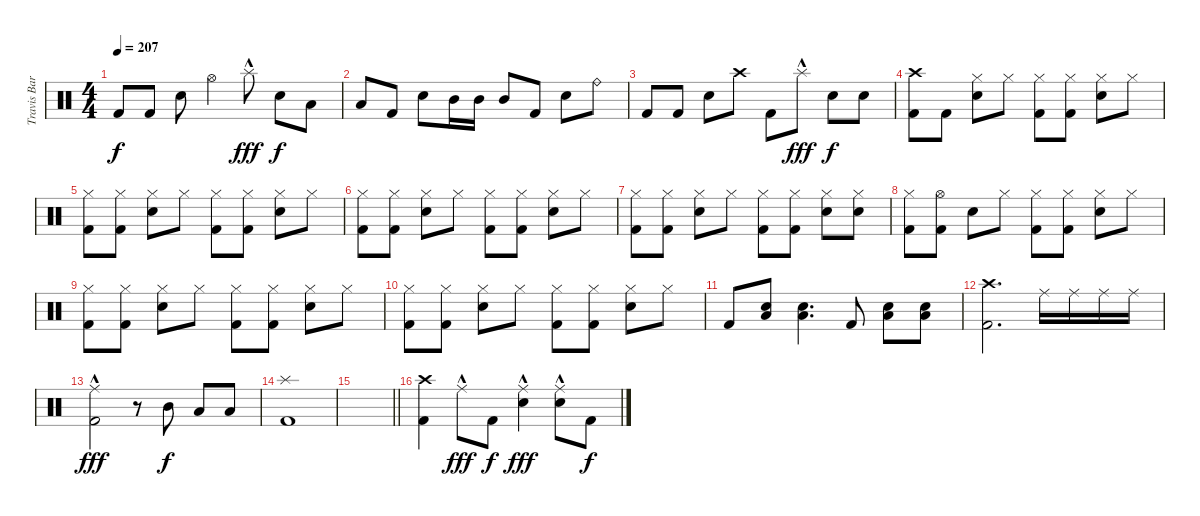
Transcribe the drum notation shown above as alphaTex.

\track ("Travis Barker" "Travis Bar") {instrument percussion}
\staff {score}
\articulation defaults
\ts (4 4)
\tempo 207
\clef neutral
\ks c "Kick (hit) 2".8{dy f} "Kick (hit) 2".8 "Electric Snare (hit)".8 "Hi-Hat (open)".4 "Splash (hit)"{hac}.8{dy fff} "Electric Snare (hit)".8{dy f} "Low Tom (hit)".8
|
"Low Tom (hit)".8 "Kick (hit) 2".8 "Electric Snare (hit)".8 "Mid Tom (hit)".16 "Mid Tom (hit)".16 "Mid Tom (hit)".8 "Kick (hit) 2".8 "Electric Snare (hit)".8 "Ride (bell)".8 |
"Kick (hit) 2".8 "Kick (hit) 2".8 "Electric Snare (hit)".8 "Crash high (hit)".8 "Kick (hit) 2".8 "Splash (hit)"{hac}.8{dy fff} "Electric Snare (hit)".8{dy f} "Electric Snare (hit)".8 |
("Crash high (hit)" "Kick (hit) 2").8 "Kick (hit) 2".8 ("Hi-Hat (closed)" "Electric Snare (hit)").8 "Hi-Hat (closed)".8 ("Hi-Hat (closed)" "Kick (hit) 2").8 ("Hi-Hat (closed)" "Kick (hit) 2").8 ("Hi-Hat (closed)" "Electric Snare (hit)").8 "Hi-Hat (closed)".8 |
("Hi-Hat (closed)" "Kick (hit) 2").8 ("Hi-Hat (closed)" "Kick (hit) 2").8 ("Hi-Hat (closed)" "Electric Snare (hit)").8 "Hi-Hat (closed)".8 ("Hi-Hat (closed)" "Kick (hit) 2").8 ("Hi-Hat (closed)" "Kick (hit) 2").8 ("Hi-Hat (closed)" "Electric Snare (hit)").8 "Hi-Hat (closed)".8 |
("Hi-Hat (closed)" "Kick (hit) 2").8 ("Hi-Hat (closed)" "Kick (hit) 2").8 ("Hi-Hat (closed)" "Electric Snare (hit)").8 "Hi-Hat (closed)".8 ("Hi-Hat (closed)" "Kick (hit) 2").8 ("Hi-Hat (closed)" "Kick (hit) 2").8 ("Hi-Hat (closed)" "Electric Snare (hit)").8 "Hi-Hat (closed)".8 |
("Hi-Hat (closed)" "Kick (hit) 2").8 ("Hi-Hat (closed)" "Kick (hit) 2").8 ("Hi-Hat (closed)" "Electric Snare (hit)").8 "Hi-Hat (closed)".8 ("Hi-Hat (closed)" "Kick (hit) 2").8 ("Hi-Hat (closed)" "Kick (hit) 2").8 ("Hi-Hat (closed)" "Electric Snare (hit)").8 ("Hi-Hat (closed)" "Electric Snare (hit)").8 |
("Hi-Hat (closed)" "Kick (hit) 2").8 ("Hi-Hat (open)" "Kick (hit) 2").8 "Electric Snare (hit)".8 "Hi-Hat (closed)".8 ("Hi-Hat (closed)" "Kick (hit) 2").8 ("Hi-Hat (closed)" "Kick (hit) 2").8 ("Hi-Hat (closed)" "Electric Snare (hit)").8 "Hi-Hat (closed)".8 |
("Hi-Hat (closed)" "Kick (hit) 2").8 ("Hi-Hat (closed)" "Kick (hit) 2").8 ("Hi-Hat (closed)" "Electric Snare (hit)").8 "Hi-Hat (closed)".8 ("Hi-Hat (closed)" "Kick (hit) 2").8 ("Hi-Hat (closed)" "Kick (hit) 2").8 ("Hi-Hat (closed)" "Electric Snare (hit)").8 "Hi-Hat (closed)".8 |
("Hi-Hat (closed)" "Kick (hit) 2").8 ("Hi-Hat (closed)" "Kick (hit) 2").8 ("Hi-Hat (closed)" "Electric Snare (hit)").8 "Hi-Hat (closed)".8 ("Hi-Hat (closed)" "Kick (hit) 2").8 ("Hi-Hat (closed)" "Kick (hit) 2").8 ("Hi-Hat (closed)" "Electric Snare (hit)").8 "Hi-Hat (closed)".8 |
"Kick (hit) 2".8 ("Electric Snare (hit)" "Low Tom (hit)").8 ("Electric Snare (hit)" "Low Tom (hit)").4{d} "Kick (hit) 2".8 ("Electric Snare (hit)" "Low Tom (hit)").8 ("Electric Snare (hit)" "Low Tom (hit)").8 |
("Crash high (hit)" "Kick (hit) 2").2{d volume 12} "Ride (middle)".16 "Ride (middle)".16 "Ride (middle)".16 "Ride (middle)".16 |
("Ride (middle)"{hac} "Kick (hit) 2").2{dy fff} r.8 "Mid Tom (hit)".8{dy f} "Low Tom (hit)".8 "Low Tom (hit)".8 |
("Splash (hit)" "Kick (hit) 2").1 |
\barLineRight lightlight
|
("Crash high (hit)" "Kick (hit) 2").4{volume 14} "Ride (middle)"{hac}.8{dy fff} "Kick (hit) 2".8{dy f} ("Ride (middle)"{hac} "Electric Snare (hit)").4{dy fff} ("Ride (middle)"{hac} "Electric Snare (hit)").8 "Kick (hit) 2".8{dy f}
